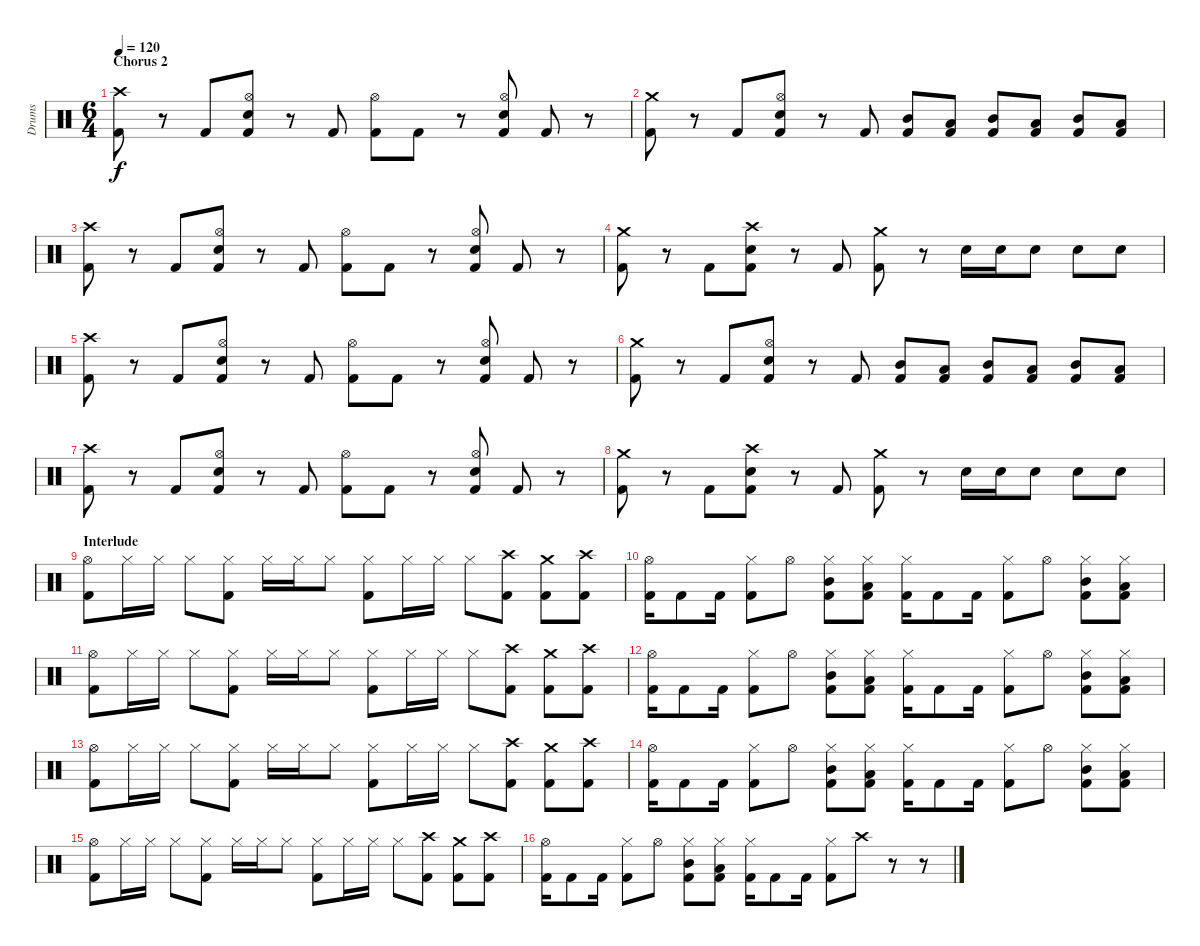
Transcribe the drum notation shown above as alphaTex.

\track ("Drums" "Drums") {instrument percussion}
\staff {score}
\articulation defaults
\ts (6 4)
\section ("" "Chorus 2")
\tempo 120
\clef neutral
\ks c
("Crash high (hit)" "Kick (hit) 2").8{dy f} r.8 "Kick (hit) 2".8 ("Hi-Hat (open)" "Snare (hit) 2" "Kick (hit) 2").8 r.8 "Kick (hit) 2".8 ("Hi-Hat (open)" "Kick (hit) 2").8 "Kick (hit) 2".8 r.8 ("Hi-Hat (open)" "Snare (hit) 2" "Kick (hit) 2").8 "Kick (hit) 2".8 r.8 |
("Crash medium (hit)" "Kick (hit) 2").8 r.8 "Kick (hit) 2".8 ("Hi-Hat (open)" "Snare (hit) 2" "Kick (hit) 2").8 r.8 "Kick (hit) 2".8 ("Mid Tom (hit)" "Kick (hit) 2").8 ("Low Tom (hit)" "Kick (hit) 2").8 ("Mid Tom (hit)" "Kick (hit) 2").8 ("Low Tom (hit)" "Kick (hit) 2").8 ("Mid Tom (hit)" "Kick (hit) 2").8 ("Low Tom (hit)" "Kick (hit) 2").8 |
("Crash high (hit)" "Kick (hit) 2").8 r.8 "Kick (hit) 2".8 ("Hi-Hat (open)" "Snare (hit) 2" "Kick (hit) 2").8 r.8 "Kick (hit) 2".8 ("Hi-Hat (open)" "Kick (hit) 2").8 "Kick (hit) 2".8 r.8 ("Hi-Hat (open)" "Snare (hit) 2" "Kick (hit) 2").8 "Kick (hit) 2".8 r.8 |
("Crash medium (hit)" "Kick (hit) 2").8 r.8 "Kick (hit) 2".8 ("Crash high (hit)" "Snare (hit) 2" "Kick (hit) 2").8 r.8 "Kick (hit) 2".8 ("Crash medium (hit)" "Kick (hit) 2").8 r.8 "Snare (hit) 2".16 "Snare (hit) 2".16 "Snare (hit) 2".8 "Snare (hit) 2".8 "Snare (hit) 2".8 |
("Crash high (hit)" "Kick (hit) 2").8 r.8 "Kick (hit) 2".8 ("Hi-Hat (open)" "Snare (hit) 2" "Kick (hit) 2").8 r.8 "Kick (hit) 2".8 ("Hi-Hat (open)" "Kick (hit) 2").8 "Kick (hit) 2".8 r.8 ("Hi-Hat (open)" "Snare (hit) 2" "Kick (hit) 2").8 "Kick (hit) 2".8 r.8 |
("Crash medium (hit)" "Kick (hit) 2").8 r.8 "Kick (hit) 2".8 ("Hi-Hat (open)" "Snare (hit) 2" "Kick (hit) 2").8 r.8 "Kick (hit) 2".8 ("Mid Tom (hit)" "Kick (hit) 2").8 ("Low Tom (hit)" "Kick (hit) 2").8 ("Mid Tom (hit)" "Kick (hit) 2").8 ("Low Tom (hit)" "Kick (hit) 2").8 ("Mid Tom (hit)" "Kick (hit) 2").8 ("Low Tom (hit)" "Kick (hit) 2").8 |
("Crash high (hit)" "Kick (hit) 2").8 r.8 "Kick (hit) 2".8 ("Hi-Hat (open)" "Snare (hit) 2" "Kick (hit) 2").8 r.8 "Kick (hit) 2".8 ("Hi-Hat (open)" "Kick (hit) 2").8 "Kick (hit) 2".8 r.8 ("Hi-Hat (open)" "Snare (hit) 2" "Kick (hit) 2").8 "Kick (hit) 2".8 r.8 |
("Crash medium (hit)" "Kick (hit) 2").8 r.8 "Kick (hit) 2".8 ("Crash high (hit)" "Snare (hit) 2" "Kick (hit) 2").8 r.8 "Kick (hit) 2".8 ("Crash medium (hit)" "Kick (hit) 2").8 r.8 "Snare (hit) 2".16 "Snare (hit) 2".16 "Snare (hit) 2".8 "Snare (hit) 2".8 "Snare (hit) 2".8 |
\section ("" "Interlude")
("Hi-Hat (open)" "Kick (hit) 2").8 "Hi-Hat (closed)".16 "Hi-Hat (closed)".16 "Hi-Hat (closed)".8 ("Hi-Hat (closed)" "Kick (hit) 2").8 "Hi-Hat (closed)".16 "Hi-Hat (closed)".16 "Hi-Hat (closed)".8 ("Hi-Hat (closed)" "Kick (hit) 2").8 "Hi-Hat (closed)".16 "Hi-Hat (closed)".16 "Hi-Hat (closed)".8 ("Crash high (hit)" "Kick (hit) 2").8 ("Crash medium (hit)" "Kick (hit) 2").8 ("Crash high (hit)" "Kick (hit) 2").8 |
("Hi-Hat (open)" "Kick (hit) 2").16 "Kick (hit) 2".8 "Kick (hit) 2".16 ("Hi-Hat (closed)" "Kick (hit) 2").8 "Hi-Hat (open)".8 ("Hi-Hat (closed)" "Mid Tom (hit)" "Kick (hit) 2").8 ("Hi-Hat (closed)" "Low Tom (hit)" "Kick (hit) 2").8 ("Hi-Hat (closed)" "Kick (hit) 2").16 "Kick (hit) 2".8 "Kick (hit) 2".16 ("Hi-Hat (closed)" "Kick (hit) 2").8 "Hi-Hat (open)".8 ("Hi-Hat (closed)" "Mid Tom (hit)" "Kick (hit) 2").8 ("Hi-Hat (closed)" "Low Tom (hit)" "Kick (hit) 2").8 |
("Hi-Hat (open)" "Kick (hit) 2").8 "Hi-Hat (closed)".16 "Hi-Hat (closed)".16 "Hi-Hat (closed)".8 ("Hi-Hat (closed)" "Kick (hit) 2").8 "Hi-Hat (closed)".16 "Hi-Hat (closed)".16 "Hi-Hat (closed)".8 ("Hi-Hat (closed)" "Kick (hit) 2").8 "Hi-Hat (closed)".16 "Hi-Hat (closed)".16 "Hi-Hat (closed)".8 ("Crash high (hit)" "Kick (hit) 2").8 ("Crash medium (hit)" "Kick (hit) 2").8 ("Crash high (hit)" "Kick (hit) 2").8 |
("Hi-Hat (open)" "Kick (hit) 2").16 "Kick (hit) 2".8 "Kick (hit) 2".16 ("Hi-Hat (closed)" "Kick (hit) 2").8 "Hi-Hat (open)".8 ("Hi-Hat (closed)" "Mid Tom (hit)" "Kick (hit) 2").8 ("Hi-Hat (closed)" "Low Tom (hit)" "Kick (hit) 2").8 ("Hi-Hat (closed)" "Kick (hit) 2").16 "Kick (hit) 2".8 "Kick (hit) 2".16 ("Hi-Hat (closed)" "Kick (hit) 2").8 "Hi-Hat (open)".8 ("Hi-Hat (closed)" "Mid Tom (hit)" "Kick (hit) 2").8 ("Hi-Hat (closed)" "Low Tom (hit)" "Kick (hit) 2").8 |
("Hi-Hat (open)" "Kick (hit) 2").8 "Hi-Hat (closed)".16 "Hi-Hat (closed)".16 "Hi-Hat (closed)".8 ("Hi-Hat (closed)" "Kick (hit) 2").8 "Hi-Hat (closed)".16 "Hi-Hat (closed)".16 "Hi-Hat (closed)".8 ("Hi-Hat (closed)" "Kick (hit) 2").8 "Hi-Hat (closed)".16 "Hi-Hat (closed)".16 "Hi-Hat (closed)".8 ("Crash high (hit)" "Kick (hit) 2").8 ("Crash medium (hit)" "Kick (hit) 2").8 ("Crash high (hit)" "Kick (hit) 2").8 |
("Hi-Hat (open)" "Kick (hit) 2").16 "Kick (hit) 2".8 "Kick (hit) 2".16 ("Hi-Hat (closed)" "Kick (hit) 2").8 "Hi-Hat (open)".8 ("Hi-Hat (closed)" "Mid Tom (hit)" "Kick (hit) 2").8 ("Hi-Hat (closed)" "Low Tom (hit)" "Kick (hit) 2").8 ("Hi-Hat (closed)" "Kick (hit) 2").16 "Kick (hit) 2".8 "Kick (hit) 2".16 ("Hi-Hat (closed)" "Kick (hit) 2").8 "Hi-Hat (open)".8 ("Hi-Hat (closed)" "Mid Tom (hit)" "Kick (hit) 2").8 ("Hi-Hat (closed)" "Low Tom (hit)" "Kick (hit) 2").8 |
("Hi-Hat (open)" "Kick (hit) 2").8 "Hi-Hat (closed)".16 "Hi-Hat (closed)".16 "Hi-Hat (closed)".8 ("Hi-Hat (closed)" "Kick (hit) 2").8 "Hi-Hat (closed)".16 "Hi-Hat (closed)".16 "Hi-Hat (closed)".8 ("Hi-Hat (closed)" "Kick (hit) 2").8 "Hi-Hat (closed)".16 "Hi-Hat (closed)".16 "Hi-Hat (closed)".8 ("Crash high (hit)" "Kick (hit) 2").8 ("Crash medium (hit)" "Kick (hit) 2").8 ("Crash high (hit)" "Kick (hit) 2").8 |
("Hi-Hat (open)" "Kick (hit) 2").16 "Kick (hit) 2".8 "Kick (hit) 2".16 ("Hi-Hat (closed)" "Kick (hit) 2").8 "Hi-Hat (open)".8 ("Hi-Hat (closed)" "Mid Tom (hit)" "Kick (hit) 2").8 ("Hi-Hat (closed)" "Low Tom (hit)" "Kick (hit) 2").8 ("Hi-Hat (closed)" "Kick (hit) 2").16 "Kick (hit) 2".8 "Kick (hit) 2".16 ("Hi-Hat (closed)" "Kick (hit) 2").8 "Crash high (hit)".8 r.8 r.8
